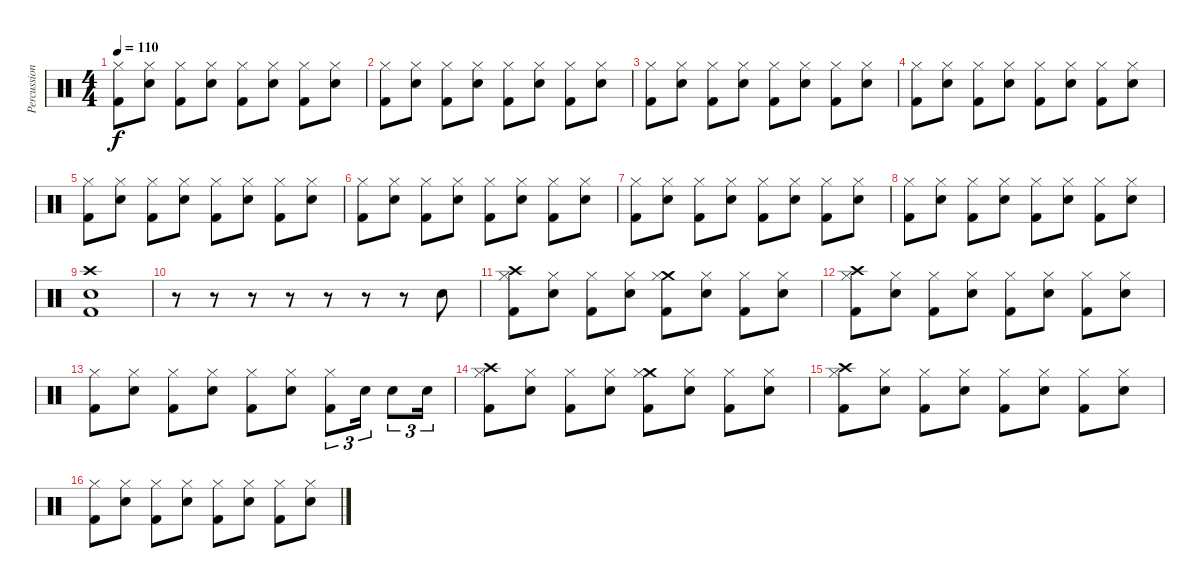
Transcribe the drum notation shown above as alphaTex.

\track ("Percussions" "Percussion") {instrument percussion}
\staff {score}
\articulation defaults
\ts (4 4)
\tempo 110
\clef neutral
\ks c
("Hi-Hat (closed)" "Kick (hit) 2").8{dy f} ("Hi-Hat (closed)" "Electric Snare (hit)").8 ("Hi-Hat (closed)" "Kick (hit) 2").8 ("Hi-Hat (closed)" "Electric Snare (hit)").8 ("Hi-Hat (closed)" "Kick (hit) 2").8 ("Hi-Hat (closed)" "Electric Snare (hit)").8 ("Hi-Hat (closed)" "Kick (hit) 2").8 ("Hi-Hat (closed)" "Electric Snare (hit)").8 |
("Hi-Hat (closed)" "Kick (hit) 2").8 ("Hi-Hat (closed)" "Electric Snare (hit)").8 ("Hi-Hat (closed)" "Kick (hit) 2").8 ("Hi-Hat (closed)" "Electric Snare (hit)").8 ("Hi-Hat (closed)" "Kick (hit) 2").8 ("Hi-Hat (closed)" "Electric Snare (hit)").8 ("Hi-Hat (closed)" "Kick (hit) 2").8 ("Hi-Hat (closed)" "Electric Snare (hit)").8 |
("Hi-Hat (closed)" "Kick (hit) 2").8 ("Hi-Hat (closed)" "Electric Snare (hit)").8 ("Hi-Hat (closed)" "Kick (hit) 2").8 ("Hi-Hat (closed)" "Electric Snare (hit)").8 ("Hi-Hat (closed)" "Kick (hit) 2").8 ("Hi-Hat (closed)" "Electric Snare (hit)").8 ("Hi-Hat (closed)" "Kick (hit) 2").8 ("Hi-Hat (closed)" "Electric Snare (hit)").8 |
("Hi-Hat (closed)" "Kick (hit) 2").8 ("Hi-Hat (closed)" "Electric Snare (hit)").8 ("Hi-Hat (closed)" "Kick (hit) 2").8 ("Hi-Hat (closed)" "Electric Snare (hit)").8 ("Hi-Hat (closed)" "Kick (hit) 2").8 ("Hi-Hat (closed)" "Electric Snare (hit)").8 ("Hi-Hat (closed)" "Kick (hit) 2").8 ("Hi-Hat (closed)" "Electric Snare (hit)").8 |
("Hi-Hat (closed)" "Kick (hit) 2").8 ("Hi-Hat (closed)" "Electric Snare (hit)").8 ("Hi-Hat (closed)" "Kick (hit) 2").8 ("Hi-Hat (closed)" "Electric Snare (hit)").8 ("Hi-Hat (closed)" "Kick (hit) 2").8 ("Hi-Hat (closed)" "Electric Snare (hit)").8 ("Hi-Hat (closed)" "Kick (hit) 2").8 ("Hi-Hat (closed)" "Electric Snare (hit)").8 |
("Hi-Hat (closed)" "Kick (hit) 2").8 ("Hi-Hat (closed)" "Electric Snare (hit)").8 ("Hi-Hat (closed)" "Kick (hit) 2").8 ("Hi-Hat (closed)" "Electric Snare (hit)").8 ("Hi-Hat (closed)" "Kick (hit) 2").8 ("Hi-Hat (closed)" "Electric Snare (hit)").8 ("Hi-Hat (closed)" "Kick (hit) 2").8 ("Hi-Hat (closed)" "Electric Snare (hit)").8 |
("Hi-Hat (closed)" "Kick (hit) 2").8 ("Hi-Hat (closed)" "Electric Snare (hit)").8 ("Hi-Hat (closed)" "Kick (hit) 2").8 ("Hi-Hat (closed)" "Electric Snare (hit)").8 ("Hi-Hat (closed)" "Kick (hit) 2").8 ("Hi-Hat (closed)" "Electric Snare (hit)").8 ("Hi-Hat (closed)" "Kick (hit) 2").8 ("Hi-Hat (closed)" "Electric Snare (hit)").8 |
("Hi-Hat (closed)" "Kick (hit) 2").8 ("Hi-Hat (closed)" "Electric Snare (hit)").8 ("Hi-Hat (closed)" "Kick (hit) 2").8 ("Hi-Hat (closed)" "Electric Snare (hit)").8 ("Hi-Hat (closed)" "Kick (hit) 2").8 ("Hi-Hat (closed)" "Electric Snare (hit)").8 ("Hi-Hat (closed)" "Kick (hit) 2").8 ("Hi-Hat (closed)" "Electric Snare (hit)").8 |
("Crash high (hit)" "Electric Snare (hit)" "Kick (hit) 2").1 |
r.8 r.8 r.8 r.8 r.8 r.8 r.8 "Electric Snare (hit)".8 |
("Crash high (hit)" "Hi-Hat (closed)" "Kick (hit) 2").8 ("Hi-Hat (closed)" "Electric Snare (hit)").8 ("Hi-Hat (closed)" "Kick (hit) 2").8 ("Hi-Hat (closed)" "Electric Snare (hit)").8 ("Crash medium (hit)" "Hi-Hat (closed)" "Kick (hit) 2").8 ("Hi-Hat (closed)" "Electric Snare (hit)").8 ("Hi-Hat (closed)" "Kick (hit) 2").8 ("Hi-Hat (closed)" "Electric Snare (hit)").8 |
("Crash high (hit)" "Hi-Hat (closed)" "Kick (hit) 2").8 ("Hi-Hat (closed)" "Electric Snare (hit)").8 ("Hi-Hat (closed)" "Kick (hit) 2").8 ("Hi-Hat (closed)" "Electric Snare (hit)").8 ("Hi-Hat (closed)" "Kick (hit) 2").8 ("Hi-Hat (closed)" "Electric Snare (hit)").8 ("Hi-Hat (closed)" "Kick (hit) 2").8 ("Hi-Hat (closed)" "Electric Snare (hit)").8 |
("Hi-Hat (closed)" "Kick (hit) 2").8 ("Hi-Hat (closed)" "Electric Snare (hit)").8 ("Hi-Hat (closed)" "Kick (hit) 2").8 ("Hi-Hat (closed)" "Electric Snare (hit)").8 ("Hi-Hat (closed)" "Kick (hit) 2").8 ("Hi-Hat (closed)" "Electric Snare (hit)").8 ("Hi-Hat (closed)" "Kick (hit) 2").8{tu (3 2)} "Electric Snare (hit)".16{tu (3 2)} "Electric Snare (hit)".8{tu (3 2)} "Electric Snare (hit)".16{tu (3 2)} |
("Crash high (hit)" "Hi-Hat (closed)" "Kick (hit) 2").8 ("Hi-Hat (closed)" "Electric Snare (hit)").8 ("Hi-Hat (closed)" "Kick (hit) 2").8 ("Hi-Hat (closed)" "Electric Snare (hit)").8 ("Crash medium (hit)" "Hi-Hat (closed)" "Kick (hit) 2").8 ("Hi-Hat (closed)" "Electric Snare (hit)").8 ("Hi-Hat (closed)" "Kick (hit) 2").8 ("Hi-Hat (closed)" "Electric Snare (hit)").8 |
("Crash high (hit)" "Hi-Hat (closed)" "Kick (hit) 2").8 ("Hi-Hat (closed)" "Electric Snare (hit)").8 ("Hi-Hat (closed)" "Kick (hit) 2").8 ("Hi-Hat (closed)" "Electric Snare (hit)").8 ("Hi-Hat (closed)" "Kick (hit) 2").8 ("Hi-Hat (closed)" "Electric Snare (hit)").8 ("Hi-Hat (closed)" "Kick (hit) 2").8 ("Hi-Hat (closed)" "Electric Snare (hit)").8 |
("Hi-Hat (closed)" "Kick (hit) 2").8 ("Hi-Hat (closed)" "Electric Snare (hit)").8 ("Hi-Hat (closed)" "Kick (hit) 2").8 ("Hi-Hat (closed)" "Electric Snare (hit)").8 ("Hi-Hat (closed)" "Kick (hit) 2").8 ("Hi-Hat (closed)" "Electric Snare (hit)").8 ("Hi-Hat (closed)" "Kick (hit) 2").8 ("Hi-Hat (closed)" "Electric Snare (hit)").8
